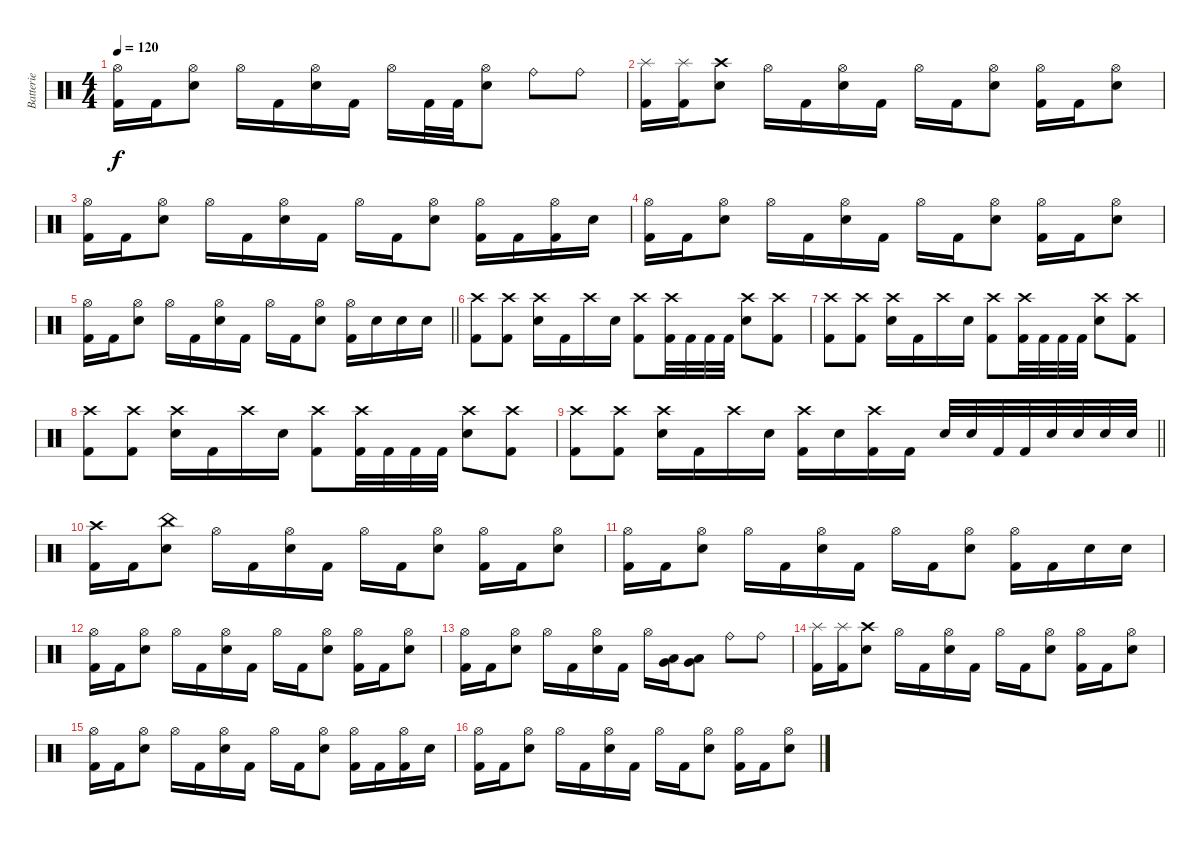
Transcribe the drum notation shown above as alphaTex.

\track ("Batterie" "Batterie") {instrument percussion}
\staff {score}
\articulation defaults
\ts (4 4)
\tempo 120
\clef neutral
\ks c
("Hi-Hat (open)" "Kick (hit) 2").16{dy f} "Kick (hit) 2".16 ("Hi-Hat (open)" "Electric Snare (hit)").8 "Hi-Hat (open)".16 "Kick (hit) 2".16 ("Hi-Hat (open)" "Electric Snare (hit)").16 "Kick (hit) 2".16 "Hi-Hat (open)".16 "Kick (hit) 2".32 "Kick (hit) 2".32 ("Hi-Hat (open)" "Electric Snare (hit)").8 "Ride (bell)".8 "Ride (bell)".8 |
("Splash (hit)" "Kick (hit) 2").16 ("Splash (hit)" "Kick (hit) 2").16 ("Crash high (hit)" "Electric Snare (hit)").8 "Hi-Hat (open)".16 "Kick (hit) 2".16 ("Hi-Hat (open)" "Electric Snare (hit)").16 "Kick (hit) 2".16 "Hi-Hat (open)".16 "Kick (hit) 2".16 ("Hi-Hat (open)" "Electric Snare (hit)").8 ("Hi-Hat (open)" "Kick (hit) 2").16 "Kick (hit) 2".16 ("Hi-Hat (open)" "Electric Snare (hit)").8 |
("Hi-Hat (open)" "Kick (hit) 2").16 "Kick (hit) 2".16 ("Hi-Hat (open)" "Electric Snare (hit)").8 "Hi-Hat (open)".16 "Kick (hit) 2".16 ("Hi-Hat (open)" "Electric Snare (hit)").16 "Kick (hit) 2".16 "Hi-Hat (open)".16 "Kick (hit) 2".16 ("Hi-Hat (open)" "Electric Snare (hit)").8 ("Hi-Hat (open)" "Kick (hit) 2").16 "Kick (hit) 2".16 ("Hi-Hat (open)" "Kick (hit) 2").16 "Electric Snare (hit)".16 |
("Hi-Hat (open)" "Kick (hit) 2").16 "Kick (hit) 2".16 ("Hi-Hat (open)" "Electric Snare (hit)").8 "Hi-Hat (open)".16 "Kick (hit) 2".16 ("Hi-Hat (open)" "Electric Snare (hit)").16 "Kick (hit) 2".16 "Hi-Hat (open)".16 "Kick (hit) 2".16 ("Hi-Hat (open)" "Electric Snare (hit)").8 ("Hi-Hat (open)" "Kick (hit) 2").16 "Kick (hit) 2".16 ("Hi-Hat (open)" "Electric Snare (hit)").8 |
\barLineRight lightlight
("Hi-Hat (open)" "Kick (hit) 2").16 "Kick (hit) 2".16 ("Hi-Hat (open)" "Electric Snare (hit)").8 "Hi-Hat (open)".16 "Kick (hit) 2".16 ("Hi-Hat (open)" "Electric Snare (hit)").16 "Kick (hit) 2".16 "Hi-Hat (open)".16 "Kick (hit) 2".16 ("Hi-Hat (open)" "Electric Snare (hit)").8 ("Hi-Hat (open)" "Kick (hit) 2").16 "Electric Snare (hit)".16 "Electric Snare (hit)".16 "Electric Snare (hit)".16 |
("Crash high (hit)" "Kick (hit) 2").8 ("Crash high (hit)" "Kick (hit) 2").8 ("Crash high (hit)" "Electric Snare (hit)").16 "Kick (hit) 2".16 "Crash high (hit)".16 "Electric Snare (hit)".16 ("Crash high (hit)" "Kick (hit) 2").8 ("Crash high (hit)" "Kick (hit) 2").32 "Kick (hit) 2".32 "Kick (hit) 2".32 "Kick (hit) 2".32 ("Crash high (hit)" "Electric Snare (hit)").8 ("Crash high (hit)" "Kick (hit) 2").8 |
("Crash high (hit)" "Kick (hit) 2").8 ("Crash high (hit)" "Kick (hit) 2").8 ("Crash high (hit)" "Electric Snare (hit)").16 "Kick (hit) 2".16 "Crash high (hit)".16 "Electric Snare (hit)".16 ("Crash high (hit)" "Kick (hit) 2").8 ("Crash high (hit)" "Kick (hit) 2").32 "Kick (hit) 2".32 "Kick (hit) 2".32 "Kick (hit) 2".32 ("Crash high (hit)" "Electric Snare (hit)").8 ("Crash high (hit)" "Kick (hit) 2").8 |
("Crash high (hit)" "Kick (hit) 2").8 ("Crash high (hit)" "Kick (hit) 2").8 ("Crash high (hit)" "Electric Snare (hit)").16 "Kick (hit) 2".16 "Crash high (hit)".16 "Electric Snare (hit)".16 ("Crash high (hit)" "Kick (hit) 2").8 ("Crash high (hit)" "Kick (hit) 2").32 "Kick (hit) 2".32 "Kick (hit) 2".32 "Kick (hit) 2".32 ("Crash high (hit)" "Electric Snare (hit)").8 ("Crash high (hit)" "Kick (hit) 2").8 |
\barLineRight lightlight
("Crash high (hit)" "Kick (hit) 2").8 ("Crash high (hit)" "Kick (hit) 2").8 ("Crash high (hit)" "Electric Snare (hit)").16 "Kick (hit) 2".16 "Crash high (hit)".16 "Electric Snare (hit)".16 ("Crash high (hit)" "Kick (hit) 2").16 "Electric Snare (hit)".16 ("Crash high (hit)" "Kick (hit) 2").16 "Kick (hit) 2".16 "Electric Snare (hit)".32 "Electric Snare (hit)".32 "Kick (hit) 2".32 "Kick (hit) 2".32 "Electric Snare (hit)".32 "Electric Snare (hit)".32 "Electric Snare (hit)".32 "Electric Snare (hit)".32 |
("Crash high (hit)" "Kick (hit) 2").16 "Kick (hit) 2".16 ("China (hit)" "Electric Snare (hit)").8 "Hi-Hat (open)".16 "Kick (hit) 2".16 ("Hi-Hat (open)" "Electric Snare (hit)").16 "Kick (hit) 2".16 "Hi-Hat (open)".16 "Kick (hit) 2".16 ("Hi-Hat (open)" "Electric Snare (hit)").8 ("Hi-Hat (open)" "Kick (hit) 2").16 "Kick (hit) 2".16 ("Hi-Hat (open)" "Electric Snare (hit)").8 |
("Hi-Hat (open)" "Kick (hit) 2").16 "Kick (hit) 2".16 ("Hi-Hat (open)" "Electric Snare (hit)").8 "Hi-Hat (open)".16 "Kick (hit) 2".16 ("Hi-Hat (open)" "Electric Snare (hit)").16 "Kick (hit) 2".16 "Hi-Hat (open)".16 "Kick (hit) 2".16 ("Hi-Hat (open)" "Electric Snare (hit)").8 ("Hi-Hat (open)" "Kick (hit) 2").16 "Kick (hit) 2".16 "Electric Snare (hit)".16 "Electric Snare (hit)".16 |
("Hi-Hat (open)" "Kick (hit) 2").16 "Kick (hit) 2".16 ("Hi-Hat (open)" "Electric Snare (hit)").8 "Hi-Hat (open)".16 "Kick (hit) 2".16 ("Hi-Hat (open)" "Electric Snare (hit)").16 "Kick (hit) 2".16 "Hi-Hat (open)".16 "Kick (hit) 2".16 ("Hi-Hat (open)" "Electric Snare (hit)").8 ("Hi-Hat (open)" "Kick (hit) 2").16 "Kick (hit) 2".16 ("Hi-Hat (open)" "Electric Snare (hit)").8 |
("Hi-Hat (open)" "Kick (hit) 2").16 "Kick (hit) 2".16 ("Hi-Hat (open)" "Electric Snare (hit)").8 "Hi-Hat (open)".16 "Kick (hit) 2".16 ("Hi-Hat (open)" "Electric Snare (hit)").16 "Kick (hit) 2".16 "Hi-Hat (open)".16 ("Low Tom (hit)" "Very Low Tom (hit)").16 ("Low Tom (hit)" "Very Low Tom (hit)").8 "Ride (bell)".8 "Ride (bell)".8 |
("Splash (hit)" "Kick (hit) 2").16 ("Splash (hit)" "Kick (hit) 2").16 ("Crash high (hit)" "Electric Snare (hit)").8 "Hi-Hat (open)".16 "Kick (hit) 2".16 ("Hi-Hat (open)" "Electric Snare (hit)").16 "Kick (hit) 2".16 "Hi-Hat (open)".16 "Kick (hit) 2".16 ("Hi-Hat (open)" "Electric Snare (hit)").8 ("Hi-Hat (open)" "Kick (hit) 2").16 "Kick (hit) 2".16 ("Hi-Hat (open)" "Electric Snare (hit)").8 |
("Hi-Hat (open)" "Kick (hit) 2").16 "Kick (hit) 2".16 ("Hi-Hat (open)" "Electric Snare (hit)").8 "Hi-Hat (open)".16 "Kick (hit) 2".16 ("Hi-Hat (open)" "Electric Snare (hit)").16 "Kick (hit) 2".16 "Hi-Hat (open)".16 "Kick (hit) 2".16 ("Hi-Hat (open)" "Electric Snare (hit)").8 ("Hi-Hat (open)" "Kick (hit) 2").16 "Kick (hit) 2".16 ("Hi-Hat (open)" "Kick (hit) 2").16 "Electric Snare (hit)".16 |
("Hi-Hat (open)" "Kick (hit) 2").16 "Kick (hit) 2".16 ("Hi-Hat (open)" "Electric Snare (hit)").8 "Hi-Hat (open)".16 "Kick (hit) 2".16 ("Hi-Hat (open)" "Electric Snare (hit)").16 "Kick (hit) 2".16 "Hi-Hat (open)".16 "Kick (hit) 2".16 ("Hi-Hat (open)" "Electric Snare (hit)").8 ("Hi-Hat (open)" "Kick (hit) 2").16 "Kick (hit) 2".16 ("Hi-Hat (open)" "Electric Snare (hit)").8
